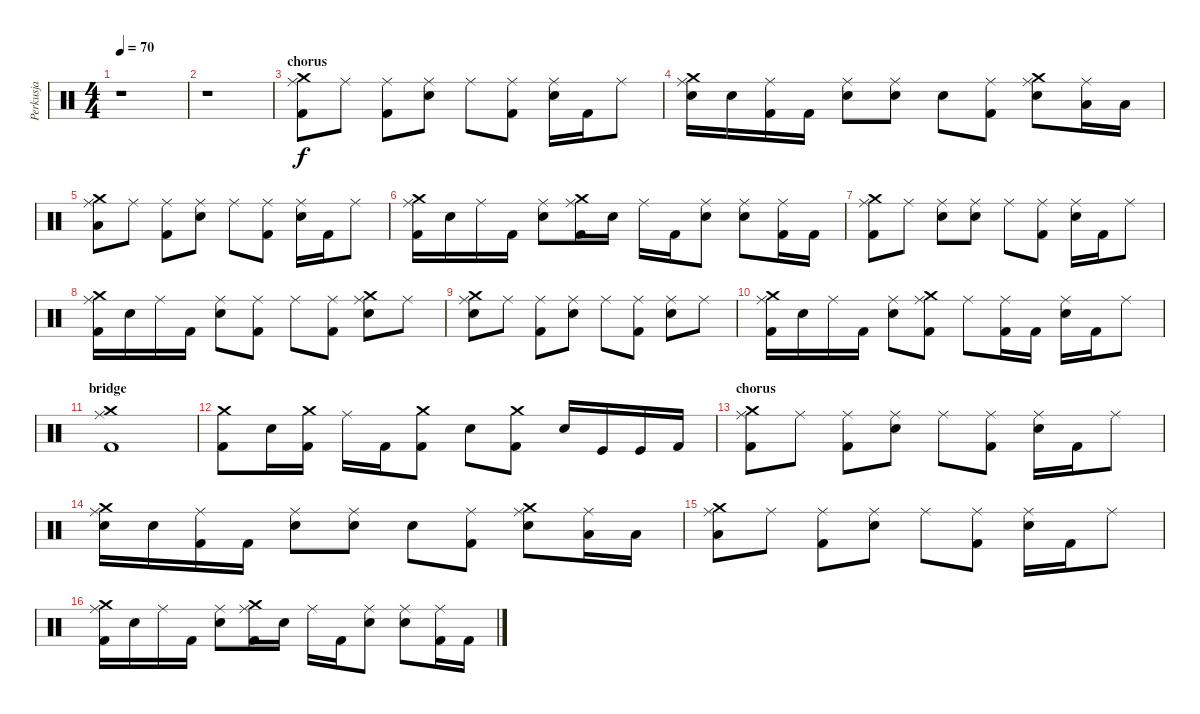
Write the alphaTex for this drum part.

\track ("Perkusja" "Perkusja") {instrument percussion}
\staff {score}
\articulation defaults
\ts (4 4)
\tempo 70
\clef neutral
\ks c
r.1{dy f} |
r.1 |
\section ("" "chorus")
("Ride (middle)" "Kick (hit) 2" "Crash medium (hit)").8 "Ride (middle)".8 ("Ride (middle)" "Kick (hit) 2").8 ("Ride (middle)" "Electric Snare (hit)").8 "Ride (middle)".8 ("Ride (middle)" "Kick (hit) 2").8 ("Ride (middle)" "Electric Snare (hit)").16 "Kick (hit) 2".16 "Ride (middle)".8 |
("Ride (middle)" "Electric Snare (hit)" "Crash medium (hit)").16 "Electric Snare (hit)".16 ("Ride (middle)" "Kick (hit) 2").16 "Kick (hit) 2".16 ("Ride (middle)" "Electric Snare (hit)").8 ("Ride (middle)" "Electric Snare (hit)").8 "Snare (hit) 2".8 ("Ride (middle)" "Kick (hit) 2").8 ("Ride (middle)" "Electric Snare (hit)" "Crash medium (hit)").8 ("Ride (middle)" "Low Floor Tom (hit)").16 "Low Floor Tom (hit)".16 |
("Ride (middle)" "Low Floor Tom (hit)" "Crash medium (hit)").8 "Ride (middle)".8 ("Ride (middle)" "Kick (hit) 2").8 ("Ride (middle)" "Electric Snare (hit)").8 "Ride (middle)".8 ("Ride (middle)" "Kick (hit) 2").8 ("Ride (middle)" "Electric Snare (hit)").16 "Kick (hit) 2".16 "Ride (middle)".8 |
("Ride (middle)" "Kick (hit) 2" "Crash medium (hit)").16 "Electric Snare (hit)".16 "Ride (middle)".16 "Kick (hit) 2".16 ("Ride (middle)" "Electric Snare (hit)").8 ("Ride (middle)" "Kick (hit) 2" "Crash medium (hit)").16 "Electric Snare (hit)".16 "Ride (middle)".16 "Kick (hit) 2".16 ("Ride (middle)" "Electric Snare (hit)").8 ("Ride (middle)" "Electric Snare (hit)").8 ("Ride (middle)" "Kick (hit) 2").16 "Kick (hit) 2".16 |
("Ride (middle)" "Kick (hit) 2" "Crash medium (hit)").8 "Ride (middle)".8 ("Ride (middle)" "Electric Snare (hit)").8 ("Ride (middle)" "Electric Snare (hit)").8 "Ride (middle)".8 ("Ride (middle)" "Kick (hit) 2").8 ("Ride (middle)" "Electric Snare (hit)").16 "Kick (hit) 2".16 "Ride (middle)".8 |
("Ride (middle)" "Kick (hit) 2" "Crash medium (hit)").16 "Electric Snare (hit)".16 "Ride (middle)".16 "Kick (hit) 2".16 ("Ride (middle)" "Electric Snare (hit)").8 ("Ride (middle)" "Kick (hit) 2").8 "Ride (middle)".8 ("Ride (middle)" "Kick (hit) 2").8 ("Ride (middle)" "Electric Snare (hit)" "Crash medium (hit)").8 "Ride (middle)".8 |
("Ride (middle)" "Electric Snare (hit)" "Crash medium (hit)").8 "Ride (middle)".8 ("Ride (middle)" "Kick (hit) 2").8 ("Ride (middle)" "Electric Snare (hit)").8 "Ride (middle)".8 ("Ride (middle)" "Kick (hit) 2").8 ("Ride (middle)" "Electric Snare (hit)").8 "Ride (middle)".8 |
("Ride (middle)" "Kick (hit) 2" "Crash medium (hit)").16 "Electric Snare (hit)".16 "Ride (middle)".16 "Kick (hit) 2".16 ("Ride (middle)" "Electric Snare (hit)").8 ("Ride (middle)" "Kick (hit) 2" "Crash medium (hit)").8 "Ride (middle)".8 ("Ride (middle)" "Kick (hit) 2").16 "Kick (hit) 2".16 ("Ride (middle)" "Electric Snare (hit)").16 "Kick (hit) 2".16 "Ride (middle)".8 |
\section ("" "bridge")
("Ride (middle)" "Kick (hit) 2" "Crash medium (hit)").1 |
("Kick (hit) 2" "Crash medium (hit)").8 "Electric Snare (hit)".16 ("Kick (hit) 2" "Crash medium (hit)").16 "Ride (middle)".16 "Kick (hit) 2".16 ("Kick (hit) 2" "Crash medium (hit)").8 "Electric Snare (hit)".8 ("Kick (hit) 2" "Crash medium (hit)").8 "Electric Snare (hit)".16 "Kick (hit)".16 "Kick (hit)".16 "Kick (hit) 2".16 |
\section ("" "chorus")
("Ride (middle)" "Kick (hit) 2" "Crash medium (hit)").8 "Ride (middle)".8 ("Ride (middle)" "Kick (hit) 2").8 ("Ride (middle)" "Electric Snare (hit)").8 "Ride (middle)".8 ("Ride (middle)" "Kick (hit) 2").8 ("Ride (middle)" "Electric Snare (hit)").16 "Kick (hit) 2".16 "Ride (middle)".8 |
("Ride (middle)" "Electric Snare (hit)" "Crash medium (hit)").16 "Electric Snare (hit)".16 ("Ride (middle)" "Kick (hit) 2").16 "Kick (hit) 2".16 ("Ride (middle)" "Electric Snare (hit)").8 ("Ride (middle)" "Electric Snare (hit)").8 "Snare (hit) 2".8 ("Ride (middle)" "Kick (hit) 2").8 ("Ride (middle)" "Electric Snare (hit)" "Crash medium (hit)").8 ("Ride (middle)" "Low Floor Tom (hit)").16 "Low Floor Tom (hit)".16 |
("Ride (middle)" "Low Floor Tom (hit)" "Crash medium (hit)").8 "Ride (middle)".8 ("Ride (middle)" "Kick (hit) 2").8 ("Ride (middle)" "Electric Snare (hit)").8 "Ride (middle)".8 ("Ride (middle)" "Kick (hit) 2").8 ("Ride (middle)" "Electric Snare (hit)").16 "Kick (hit) 2".16 "Ride (middle)".8 |
("Ride (middle)" "Kick (hit) 2" "Crash medium (hit)").16 "Electric Snare (hit)".16 "Ride (middle)".16 "Kick (hit) 2".16 ("Ride (middle)" "Electric Snare (hit)").8 ("Ride (middle)" "Kick (hit) 2" "Crash medium (hit)").16 "Electric Snare (hit)".16 "Ride (middle)".16 "Kick (hit) 2".16 ("Ride (middle)" "Electric Snare (hit)").8 ("Ride (middle)" "Electric Snare (hit)").8 ("Ride (middle)" "Kick (hit) 2").16 "Kick (hit) 2".16
